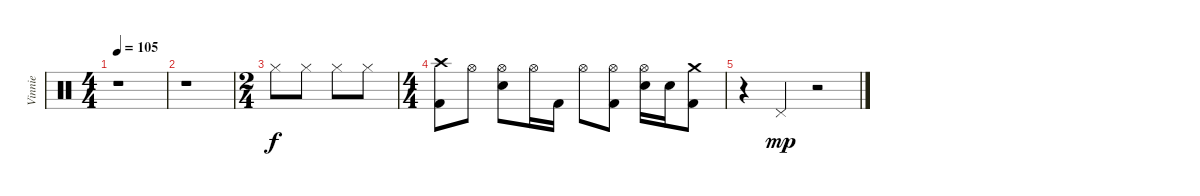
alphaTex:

\track ("Vinnie" "Vinnie") {instrument percussion}
\staff {score}
\articulation defaults
\ts (4 4)
\tempo 105
\clef neutral
\ks c
r.1{dy f} |
r.1 |
\ts (2 4)
"Hi-Hat (closed)".8 "Hi-Hat (closed)".8 "Hi-Hat (closed)".8 "Hi-Hat (closed)".8 |
\ts (4 4)
("Crash high (hit)" "Kick (hit) 2").8 "Hi-Hat (open)".8 ("Hi-Hat (open)" "Electric Snare (hit)").8 "Hi-Hat (open)".16 "Kick (hit) 2".16 "Hi-Hat (open)".8 ("Hi-Hat (open)" "Kick (hit) 2").8 ("Hi-Hat (open)" "Electric Snare (hit)").16 "Electric Snare (hit)".16 ("Crash medium (hit)" "Kick (hit) 2").8 |
r.4 "Pedal Hi-Hat (hit)".4{dy mp} r.2
